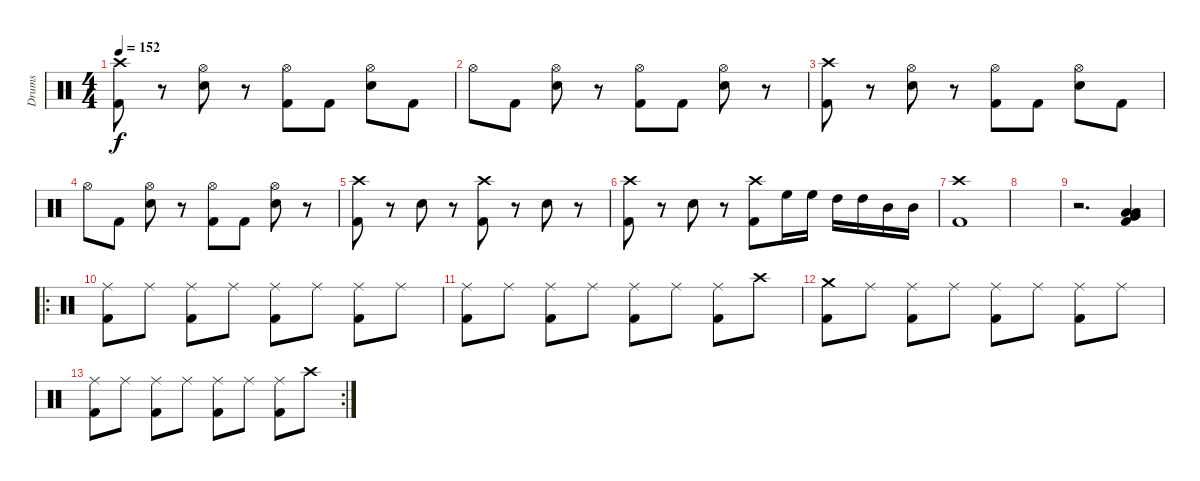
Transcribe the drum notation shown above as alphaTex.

\track ("Drums" "Drums") {instrument percussion}
\staff {score}
\articulation defaults
\ts (4 4)
\tempo 152
\clef neutral
\ks c
("Crash high (hit)" "Kick (hit) 2").8{dy f} r.8 ("Hi-Hat (open)" "Snare (hit) 2").8 r.8 ("Hi-Hat (open)" "Kick (hit) 2").8 "Kick (hit) 2".8 ("Hi-Hat (open)" "Snare (hit) 2").8 "Kick (hit) 2".8 |
"Hi-Hat (open)".8 "Kick (hit) 2".8 ("Hi-Hat (open)" "Snare (hit) 2").8 r.8 ("Hi-Hat (open)" "Kick (hit) 2").8 "Kick (hit) 2".8 ("Hi-Hat (open)" "Snare (hit) 2").8 r.8 |
("Crash high (hit)" "Kick (hit) 2").8 r.8 ("Hi-Hat (open)" "Snare (hit) 2").8 r.8 ("Hi-Hat (open)" "Kick (hit) 2").8 "Kick (hit) 2".8 ("Hi-Hat (open)" "Snare (hit) 2").8 "Kick (hit) 2".8 |
"Hi-Hat (open)".8 "Kick (hit) 2".8 ("Hi-Hat (open)" "Snare (hit) 2").8 r.8 ("Hi-Hat (open)" "Kick (hit) 2").8 "Kick (hit) 2".8 ("Hi-Hat (open)" "Snare (hit) 2").8 r.8 |
("Crash high (hit)" "Kick (hit) 2").8 r.8 "Snare (hit) 2".8 r.8 ("Crash high (hit)" "Kick (hit) 2").8 r.8 "Snare (hit) 2".8 r.8 |
("Crash high (hit)" "Kick (hit) 2").8 r.8 "Snare (hit) 2".8 r.8 ("Crash high (hit)" "Kick (hit) 2").8 "High Floor Tom (hit)".16 "High Floor Tom (hit)".16 "High Tom (hit)".16 "High Tom (hit)".16 "Mid Tom (hit)".16 "Mid Tom (hit)".16 |
("Crash high (hit)" "Kick (hit) 2").1 |
|
r.2{d} ("Very Low Tom (hit)" "Low Floor Tom (hit)" "Low Floor Tom (hit)" "Kick (hit) 2").4 |
\ro
("Ride (middle)" "Kick (hit) 2").8 "Ride (middle)".8 ("Ride (middle)" "Kick (hit) 2").8 "Ride (middle)".8 ("Ride (middle)" "Kick (hit) 2").8 "Ride (middle)".8 ("Ride (middle)" "Kick (hit) 2").8 "Ride (middle)".8 |
("Ride (middle)" "Kick (hit) 2").8 "Ride (middle)".8 ("Ride (middle)" "Kick (hit) 2").8 "Ride (middle)".8 ("Ride (middle)" "Kick (hit) 2").8 "Ride (middle)".8 ("Ride (middle)" "Kick (hit) 2").8 "Crash high (hit)".8 |
("Crash medium (hit)" "Kick (hit) 2").8 "Ride (middle)".8 ("Ride (middle)" "Kick (hit) 2").8 "Ride (middle)".8 ("Ride (middle)" "Kick (hit) 2").8 "Ride (middle)".8 ("Ride (middle)" "Kick (hit) 2").8 "Ride (middle)".8 |
\rc 2
("Ride (middle)" "Kick (hit) 2").8 "Ride (middle)".8 ("Ride (middle)" "Kick (hit) 2").8 "Ride (middle)".8 ("Ride (middle)" "Kick (hit) 2").8 "Ride (middle)".8 ("Ride (middle)" "Kick (hit) 2").8 "Crash high (hit)".8
